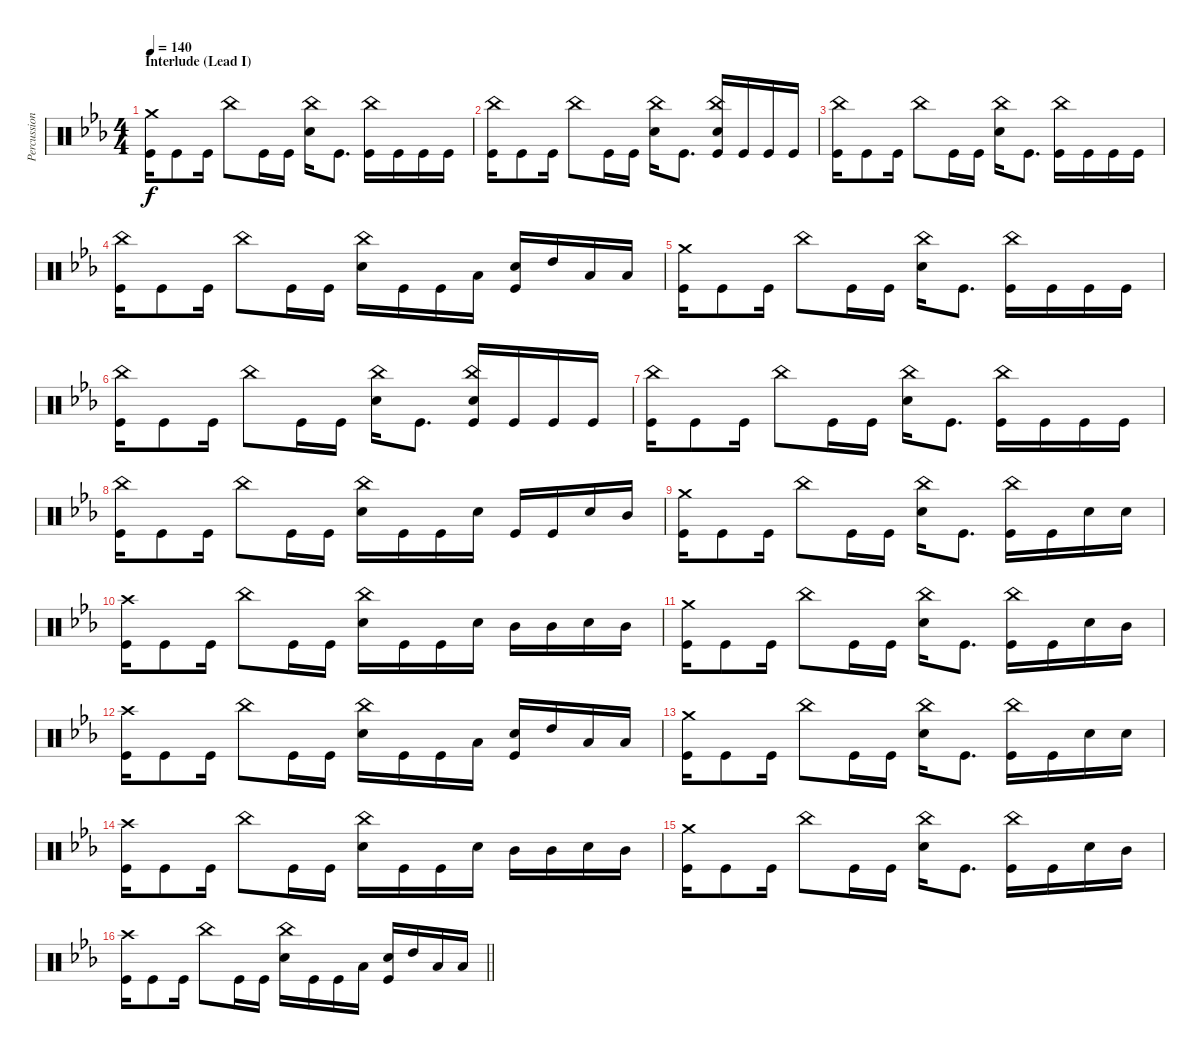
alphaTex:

\track ("Percussion" "Percussion") {instrument percussion}
\staff {score}
\articulation defaults
\ts (4 4)
\section ("" "Interlude (Lead I)")
\tempo 140
\clef neutral
\ks eb
("Crash medium (hit)" "Kick (hit)").16{dy f} "Kick (hit)".8 "Kick (hit)".16 "China (hit)".8 "Kick (hit)".16 "Kick (hit)".16 ("China (hit)" "Electric Snare (hit)").16 "Kick (hit)".8{d} ("China (hit)" "Kick (hit)").16 "Kick (hit)".16 "Kick (hit)".16 "Kick (hit)".16 |
("China (hit)" "Kick (hit)").16 "Kick (hit)".8 "Kick (hit)".16 "China (hit)".8 "Kick (hit)".16 "Kick (hit)".16 ("China (hit)" "Electric Snare (hit)").16 "Kick (hit)".8{d} ("China (hit)" "Electric Snare (hit)" "Kick (hit)").16 "Kick (hit)".16 "Kick (hit)".16 "Kick (hit)".16 |
("China (hit)" "Kick (hit)").16 "Kick (hit)".8 "Kick (hit)".16 "China (hit)".8 "Kick (hit)".16 "Kick (hit)".16 ("China (hit)" "Electric Snare (hit)").16 "Kick (hit)".8{d} ("China (hit)" "Kick (hit)").16 "Kick (hit)".16 "Kick (hit)".16 "Kick (hit)".16 |
("China (hit)" "Kick (hit)").16 "Kick (hit)".8 "Kick (hit)".16 "China (hit)".8 "Kick (hit)".16 "Kick (hit)".16 ("China (hit)" "Electric Snare (hit)").16 "Kick (hit)".16 "Kick (hit)".16 "Low Floor Tom (hit)".16 ("Electric Snare (hit)" "Kick (hit)").16 "High Tom (hit)".16 "Low Tom (hit)".16 "Low Floor Tom (hit)".16 |
("Crash medium (hit)" "Kick (hit)").16 "Kick (hit)".8 "Kick (hit)".16 "China (hit)".8 "Kick (hit)".16 "Kick (hit)".16 ("China (hit)" "Electric Snare (hit)").16 "Kick (hit)".8{d} ("China (hit)" "Kick (hit)").16 "Kick (hit)".16 "Kick (hit)".16 "Kick (hit)".16 |
("China (hit)" "Kick (hit)").16 "Kick (hit)".8 "Kick (hit)".16 "China (hit)".8 "Kick (hit)".16 "Kick (hit)".16 ("China (hit)" "Electric Snare (hit)").16 "Kick (hit)".8{d} ("China (hit)" "Electric Snare (hit)" "Kick (hit)").16 "Kick (hit)".16 "Kick (hit)".16 "Kick (hit)".16 |
("China (hit)" "Kick (hit)").16 "Kick (hit)".8 "Kick (hit)".16 "China (hit)".8 "Kick (hit)".16 "Kick (hit)".16 ("China (hit)" "Electric Snare (hit)").16 "Kick (hit)".8{d} ("China (hit)" "Kick (hit)").16 "Kick (hit)".16 "Kick (hit)".16 "Kick (hit)".16 |
("China (hit)" "Kick (hit)").16 "Kick (hit)".8 "Kick (hit)".16 "China (hit)".8 "Kick (hit)".16 "Kick (hit)".16 ("China (hit)" "Electric Snare (hit)").16 "Kick (hit)".16 "Kick (hit)".16 "Electric Snare (hit)".16 "Kick (hit)".16 "Kick (hit)".16 "Electric Snare (hit)".16 "Mid Tom (hit)".16 |
("Crash medium (hit)" "Kick (hit)").16 "Kick (hit)".8 "Kick (hit)".16 "China (hit)".8 "Kick (hit)".16 "Kick (hit)".16 ("China (hit)" "Electric Snare (hit)").16 "Kick (hit)".8{d} ("China (hit)" "Kick (hit)").16 "Kick (hit)".16 "Electric Snare (hit)".16 "Electric Snare (hit)".16 |
("Crash high (hit)" "Kick (hit)").16 "Kick (hit)".8 "Kick (hit)".16 "China (hit)".8 "Kick (hit)".16 "Kick (hit)".16 ("China (hit)" "Electric Snare (hit)").16 "Kick (hit)".16 "Kick (hit)".16 "Electric Snare (hit)".16 "Mid Tom (hit)".16 "Mid Tom (hit)".16 "Electric Snare (hit)".16 "Mid Tom (hit)".16 |
("Crash medium (hit)" "Kick (hit)").16 "Kick (hit)".8 "Kick (hit)".16 "China (hit)".8 "Kick (hit)".16 "Kick (hit)".16 ("China (hit)" "Electric Snare (hit)").16 "Kick (hit)".8{d} ("China (hit)" "Kick (hit)").16 "Kick (hit)".16 "Electric Snare (hit)".16 "Mid Tom (hit)".16 |
("Crash high (hit)" "Kick (hit)").16 "Kick (hit)".8 "Kick (hit)".16 "China (hit)".8 "Kick (hit)".16 "Kick (hit)".16 ("China (hit)" "Electric Snare (hit)").16 "Kick (hit)".16 "Kick (hit)".16 "Low Floor Tom (hit)".16 ("Electric Snare (hit)" "Kick (hit)").16 "High Tom (hit)".16 "Low Tom (hit)".16 "Low Floor Tom (hit)".16 |
("Crash medium (hit)" "Kick (hit)").16 "Kick (hit)".8 "Kick (hit)".16 "China (hit)".8 "Kick (hit)".16 "Kick (hit)".16 ("China (hit)" "Electric Snare (hit)").16 "Kick (hit)".8{d} ("China (hit)" "Kick (hit)").16 "Kick (hit)".16 "Electric Snare (hit)".16 "Electric Snare (hit)".16 |
("Crash high (hit)" "Kick (hit)").16 "Kick (hit)".8 "Kick (hit)".16 "China (hit)".8 "Kick (hit)".16 "Kick (hit)".16 ("China (hit)" "Electric Snare (hit)").16 "Kick (hit)".16 "Kick (hit)".16 "Electric Snare (hit)".16 "Mid Tom (hit)".16 "Mid Tom (hit)".16 "Electric Snare (hit)".16 "Mid Tom (hit)".16 |
("Crash medium (hit)" "Kick (hit)").16 "Kick (hit)".8 "Kick (hit)".16 "China (hit)".8 "Kick (hit)".16 "Kick (hit)".16 ("China (hit)" "Electric Snare (hit)").16 "Kick (hit)".8{d} ("China (hit)" "Kick (hit)").16 "Kick (hit)".16 "Electric Snare (hit)".16 "Mid Tom (hit)".16 |
\barLineRight lightlight
("Crash high (hit)" "Kick (hit)").16 "Kick (hit)".8 "Kick (hit)".16 "China (hit)".8 "Kick (hit)".16 "Kick (hit)".16 ("China (hit)" "Electric Snare (hit)").16 "Kick (hit)".16 "Kick (hit)".16 "Low Floor Tom (hit)".16 ("Electric Snare (hit)" "Kick (hit)").16 "High Tom (hit)".16 "Low Tom (hit)".16 "Low Floor Tom (hit)".16
